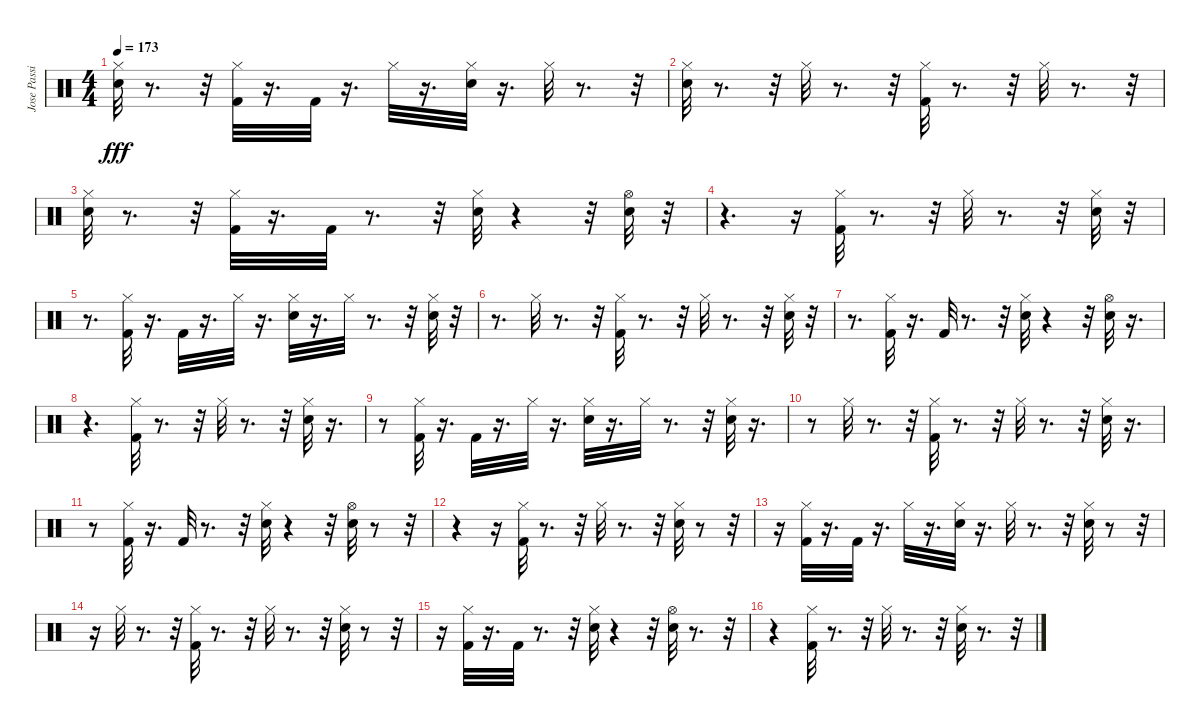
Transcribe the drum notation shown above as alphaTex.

\track ("Jose Passilas-Drums" "Jose Passi") {instrument percussion}
\staff {score}
\articulation defaults
\ts (4 4)
\tempo 173
\clef neutral
\ks c
("Electric Snare (hit)" "Hi-Hat (closed)").32{dy fff} r.8{d} r.32 ("Kick (hit) 2" "Hi-Hat (closed)").32 r.16{d} "Kick (hit) 2".32 r.16{d} "Hi-Hat (closed)".32 r.16{d} ("Electric Snare (hit)" "Hi-Hat (closed)").32 r.16{d} "Hi-Hat (closed)".32 r.8{d} r.32 |
("Electric Snare (hit)" "Hi-Hat (closed)").32 r.8{d} r.32 "Hi-Hat (closed)".32 r.8{d} r.32 ("Kick (hit) 2" "Hi-Hat (closed)").32 r.8{d} r.32 "Hi-Hat (closed)".32 r.8{d} r.32 |
("Electric Snare (hit)" "Hi-Hat (closed)").32 r.8{d} r.32 ("Kick (hit) 2" "Hi-Hat (closed)").32 r.16{d} "Kick (hit) 2".32 r.8{d} r.32 ("Electric Snare (hit)" "Hi-Hat (closed)").32 r.4 r.32 ("Electric Snare (hit)" "Hi-Hat (open)").32 r.32 |
r.4{d} r.16 ("Kick (hit) 2" "Hi-Hat (closed)").32 r.8{d} r.32 "Hi-Hat (closed)".32 r.8{d} r.32 ("Electric Snare (hit)" "Hi-Hat (closed)").32 r.32 |
r.8{d} ("Kick (hit) 2" "Hi-Hat (closed)").32 r.16{d} "Kick (hit) 2".32 r.16{d} "Hi-Hat (closed)".32 r.16{d} ("Electric Snare (hit)" "Hi-Hat (closed)").32 r.16{d} "Hi-Hat (closed)".32 r.8{d} r.32 ("Electric Snare (hit)" "Hi-Hat (closed)").32 r.32 |
r.8{d} "Hi-Hat (closed)".32 r.8{d} r.32 ("Kick (hit) 2" "Hi-Hat (closed)").32 r.8{d} r.32 "Hi-Hat (closed)".32 r.8{d} r.32 ("Electric Snare (hit)" "Hi-Hat (closed)").32 r.32 |
r.8{d} ("Kick (hit) 2" "Hi-Hat (closed)").32 r.16{d} "Kick (hit) 2".32 r.8{d} r.32 ("Electric Snare (hit)" "Hi-Hat (closed)").32 r.4 r.32 ("Electric Snare (hit)" "Hi-Hat (open)").32 r.16{d} |
r.4{d} ("Hi-Hat (closed)" "Kick (hit) 2").32 r.8{d} r.32 "Hi-Hat (closed)".32 r.8{d} r.32 ("Hi-Hat (closed)" "Electric Snare (hit)").32 r.16{d} |
r.8 ("Hi-Hat (closed)" "Kick (hit) 2").32 r.16{d} "Kick (hit) 2".32 r.16{d} "Hi-Hat (closed)".32 r.16{d} ("Hi-Hat (closed)" "Electric Snare (hit)").32 r.16{d} "Hi-Hat (closed)".32 r.8{d} r.32 ("Hi-Hat (closed)" "Electric Snare (hit)").32 r.16{d} |
r.8 "Hi-Hat (closed)".32 r.8{d} r.32 ("Hi-Hat (closed)" "Kick (hit) 2").32 r.8{d} r.32 "Hi-Hat (closed)".32 r.8{d} r.32 ("Hi-Hat (closed)" "Electric Snare (hit)").32 r.16{d} |
r.8 ("Hi-Hat (closed)" "Kick (hit) 2").32 r.16{d} "Kick (hit) 2".32 r.8{d} r.32 ("Hi-Hat (closed)" "Electric Snare (hit)").32 r.4 r.32 ("Hi-Hat (open)" "Electric Snare (hit)").32 r.8 r.32 |
r.4 r.16 ("Hi-Hat (closed)" "Kick (hit) 2").32 r.8{d} r.32 "Hi-Hat (closed)".32 r.8{d} r.32 ("Hi-Hat (closed)" "Electric Snare (hit)").32 r.8 r.32 |
r.16 ("Hi-Hat (closed)" "Kick (hit) 2").32 r.16{d} "Kick (hit) 2".32 r.16{d} "Hi-Hat (closed)".32 r.16{d} ("Hi-Hat (closed)" "Electric Snare (hit)").32 r.16{d} "Hi-Hat (closed)".32 r.8{d} r.32 ("Hi-Hat (closed)" "Electric Snare (hit)").32 r.8 r.32 |
r.16 "Hi-Hat (closed)".32 r.8{d} r.32 ("Hi-Hat (closed)" "Kick (hit) 2").32 r.8{d} r.32 "Hi-Hat (closed)".32 r.8{d} r.32 ("Hi-Hat (closed)" "Electric Snare (hit)").32 r.8 r.32 |
r.16 ("Hi-Hat (closed)" "Kick (hit) 2").32 r.16{d} "Kick (hit) 2".32 r.8{d} r.32 ("Hi-Hat (closed)" "Electric Snare (hit)").32 r.4 r.32 ("Hi-Hat (open)" "Electric Snare (hit)").32 r.8{d} r.32 |
r.4 ("Hi-Hat (closed)" "Kick (hit) 2").32 r.8{d} r.32 "Hi-Hat (closed)".32 r.8{d} r.32 ("Hi-Hat (closed)" "Electric Snare (hit)").32 r.8{d} r.32
